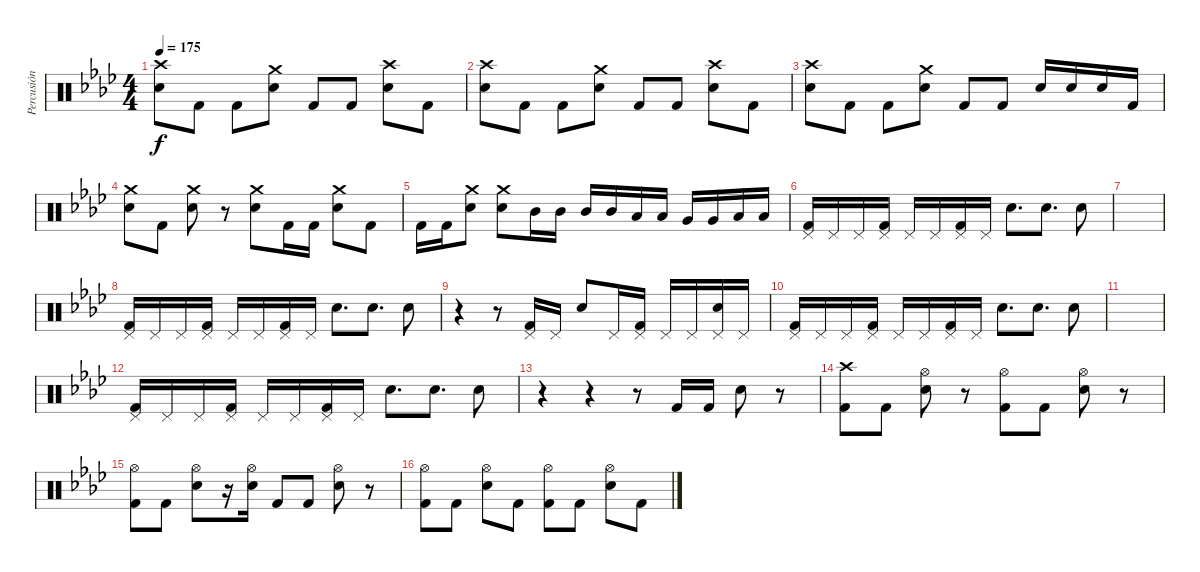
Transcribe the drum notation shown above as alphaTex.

\track ("Percusión" "Percusión") {instrument percussion}
\staff {score}
\articulation defaults
\ts (4 4)
\tempo 175
\clef neutral
\ks fminor
("Snare (hit) 2" "Crash high (hit)").8{dy f} "Kick (hit) 2".8 "Kick (hit) 2".8 ("Snare (hit) 2" "Crash medium (hit)").8 "Kick (hit) 2".8 "Kick (hit) 2".8 ("Snare (hit) 2" "Crash high (hit)").8 "Kick (hit) 2".8 |
("Snare (hit) 2" "Crash high (hit)").8 "Kick (hit) 2".8 "Kick (hit) 2".8 ("Snare (hit) 2" "Crash medium (hit)").8 "Kick (hit) 2".8 "Kick (hit) 2".8 ("Snare (hit) 2" "Crash high (hit)").8 "Kick (hit) 2".8 |
("Snare (hit) 2" "Crash high (hit)").8 "Kick (hit) 2".8 "Kick (hit) 2".8 ("Snare (hit) 2" "Crash medium (hit)").8 "Kick (hit) 2".8 "Kick (hit) 2".8 "Snare (hit) 2".16 "Snare (hit) 2".16 "Snare (hit) 2".16 "Kick (hit) 2".16 |
("Snare (hit) 2" "Crash medium (hit)").8 "Kick (hit) 2".8 ("Snare (hit) 2" "Crash medium (hit)").8 r.8 ("Snare (hit) 2" "Crash medium (hit)").8 "Kick (hit) 2".16 "Kick (hit) 2".16 ("Snare (hit) 2" "Crash medium (hit)").8 "Kick (hit) 2".8 |
"Kick (hit) 2".16 "Kick (hit) 2".16 ("Snare (hit) 2" "Crash medium (hit)").8 ("Snare (hit) 2" "Crash medium (hit)").8 "Mid Tom (hit)".16 "Mid Tom (hit)".16 "Mid Tom (hit)".16 "Mid Tom (hit)".16 "Low Tom (hit)".16 "Low Tom (hit)".16 "Very Low Tom (hit)".16 "Very Low Tom (hit)".16 "Low Floor Tom (hit)".16 "Low Floor Tom (hit)".16 |
("Kick (hit) 2" "Pedal Hi-Hat (hit)").16 "Pedal Hi-Hat (hit)".16 "Pedal Hi-Hat (hit)".16 ("Kick (hit) 2" "Pedal Hi-Hat (hit)").16 "Pedal Hi-Hat (hit)".16 "Pedal Hi-Hat (hit)".16 ("Kick (hit) 2" "Pedal Hi-Hat (hit)").16 "Pedal Hi-Hat (hit)".16 "Electric Snare (hit)".8{d} "Electric Snare (hit)".8{d} "Electric Snare (hit)".8 |
|
("Kick (hit) 2" "Pedal Hi-Hat (hit)").16 "Pedal Hi-Hat (hit)".16 "Pedal Hi-Hat (hit)".16 ("Kick (hit) 2" "Pedal Hi-Hat (hit)").16 "Pedal Hi-Hat (hit)".16 "Pedal Hi-Hat (hit)".16 ("Kick (hit) 2" "Pedal Hi-Hat (hit)").16 "Pedal Hi-Hat (hit)".16 "Electric Snare (hit)".8{d} "Electric Snare (hit)".8{d} "Electric Snare (hit)".8 |
r.4 r.8 ("Kick (hit) 2" "Pedal Hi-Hat (hit)").16 "Pedal Hi-Hat (hit)".16 "Electric Snare (hit)".8 "Pedal Hi-Hat (hit)".16 ("Kick (hit) 2" "Pedal Hi-Hat (hit)").16 "Pedal Hi-Hat (hit)".16 "Pedal Hi-Hat (hit)".16 ("Electric Snare (hit)" "Pedal Hi-Hat (hit)").16 "Pedal Hi-Hat (hit)".16 |
("Kick (hit) 2" "Pedal Hi-Hat (hit)").16 "Pedal Hi-Hat (hit)".16 "Pedal Hi-Hat (hit)".16 ("Kick (hit) 2" "Pedal Hi-Hat (hit)").16 "Pedal Hi-Hat (hit)".16 "Pedal Hi-Hat (hit)".16 ("Kick (hit) 2" "Pedal Hi-Hat (hit)").16 "Pedal Hi-Hat (hit)".16 "Electric Snare (hit)".8{d} "Electric Snare (hit)".8{d} "Electric Snare (hit)".8 |
|
("Kick (hit) 2" "Pedal Hi-Hat (hit)").16 "Pedal Hi-Hat (hit)".16 "Pedal Hi-Hat (hit)".16 ("Kick (hit) 2" "Pedal Hi-Hat (hit)").16 "Pedal Hi-Hat (hit)".16 "Pedal Hi-Hat (hit)".16 ("Kick (hit) 2" "Pedal Hi-Hat (hit)").16 "Pedal Hi-Hat (hit)".16 "Electric Snare (hit)".8{d} "Electric Snare (hit)".8{d} "Electric Snare (hit)".8 |
r.4 r.4 r.8 "Kick (hit) 2".16 "Kick (hit) 2".16 "Snare (hit) 2".8 r.8 |
("Kick (hit) 2" "Crash high (hit)").8 "Kick (hit) 2".8 ("Snare (hit) 2" "Hi-Hat (open)").8 r.8 ("Kick (hit) 2" "Hi-Hat (open)").8 "Kick (hit) 2".8 ("Snare (hit) 2" "Hi-Hat (open)").8 r.8 |
("Kick (hit) 2" "Hi-Hat (open)").8 "Kick (hit) 2".8 ("Snare (hit) 2" "Hi-Hat (open)").8 r.16 ("Snare (hit) 2" "Hi-Hat (open)").16 "Kick (hit) 2".8 "Kick (hit) 2".8 ("Snare (hit) 2" "Hi-Hat (open)").8 r.8 |
("Kick (hit) 2" "Hi-Hat (open)").8 "Kick (hit) 2".8 ("Snare (hit) 2" "Hi-Hat (open)").8 "Kick (hit) 2".8 ("Kick (hit) 2" "Hi-Hat (open)").8 "Kick (hit) 2".8 ("Snare (hit) 2" "Hi-Hat (open)").8 "Kick (hit) 2".8
